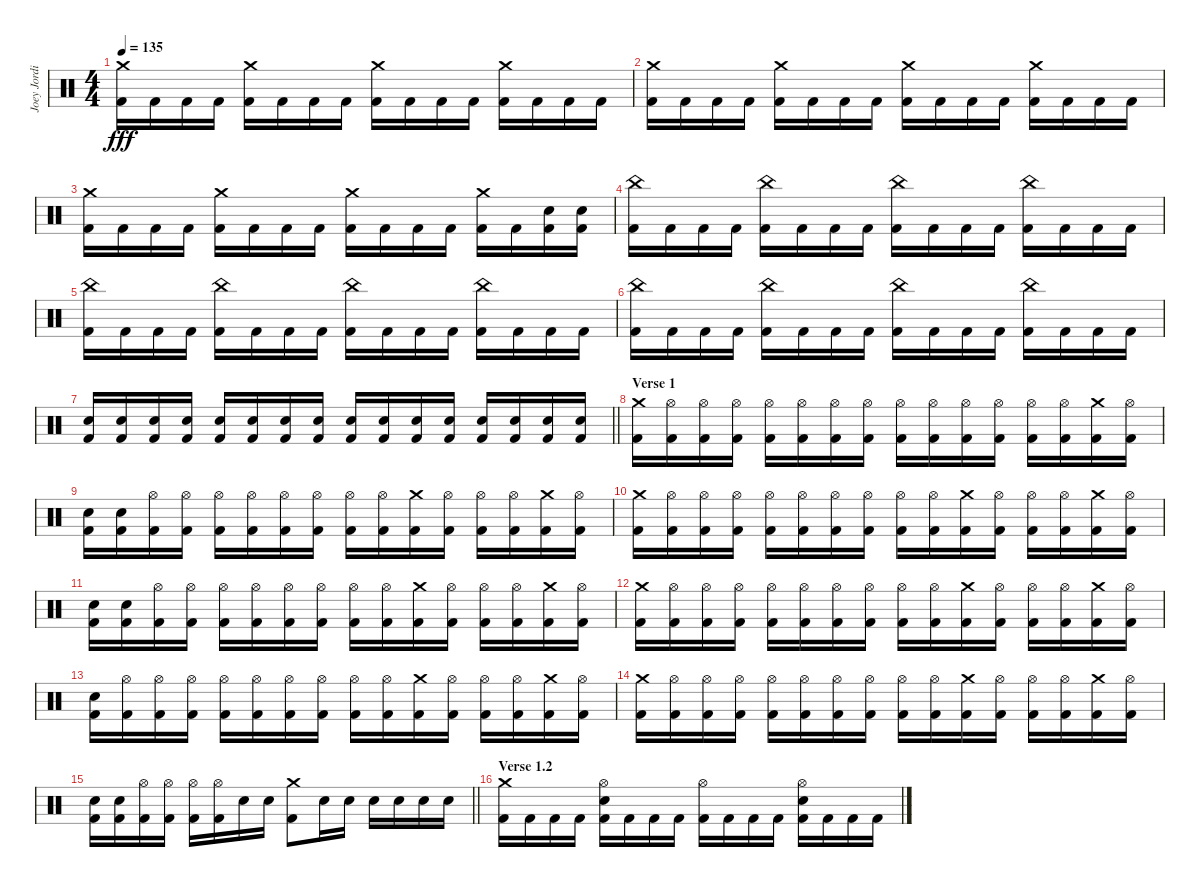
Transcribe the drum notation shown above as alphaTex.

\track ("Joey Jordison" "Joey Jordi") {instrument percussion}
\staff {score}
\articulation defaults
\ts (4 4)
\tempo 135
\clef neutral
\ks c
("Crash medium (hit)" "Kick (hit) 2").16{dy fff} "Kick (hit) 2".16 "Kick (hit) 2".16 "Kick (hit) 2".16 ("Crash medium (hit)" "Kick (hit) 2").16 "Kick (hit) 2".16 "Kick (hit) 2".16 "Kick (hit) 2".16 ("Crash medium (hit)" "Kick (hit) 2").16 "Kick (hit) 2".16 "Kick (hit) 2".16 "Kick (hit) 2".16 ("Crash medium (hit)" "Kick (hit) 2").16 "Kick (hit) 2".16 "Kick (hit) 2".16 "Kick (hit) 2".16 |
("Crash medium (hit)" "Kick (hit) 2").16 "Kick (hit) 2".16 "Kick (hit) 2".16 "Kick (hit) 2".16 ("Crash medium (hit)" "Kick (hit) 2").16 "Kick (hit) 2".16 "Kick (hit) 2".16 "Kick (hit) 2".16 ("Crash medium (hit)" "Kick (hit) 2").16 "Kick (hit) 2".16 "Kick (hit) 2".16 "Kick (hit) 2".16 ("Crash medium (hit)" "Kick (hit) 2").16 "Kick (hit) 2".16 "Kick (hit) 2".16 "Kick (hit) 2".16 |
("Crash medium (hit)" "Kick (hit) 2").16 "Kick (hit) 2".16 "Kick (hit) 2".16 "Kick (hit) 2".16 ("Crash medium (hit)" "Kick (hit) 2").16 "Kick (hit) 2".16 "Kick (hit) 2".16 "Kick (hit) 2".16 ("Crash medium (hit)" "Kick (hit) 2").16 "Kick (hit) 2".16 "Kick (hit) 2".16 "Kick (hit) 2".16 ("Crash medium (hit)" "Kick (hit) 2").16 "Kick (hit) 2".16 ("Electric Snare (hit)" "Kick (hit) 2").16 ("Electric Snare (hit)" "Kick (hit) 2").16 |
("China (hit)" "Kick (hit) 2").16 "Kick (hit) 2".16 "Kick (hit) 2".16 "Kick (hit) 2".16 ("China (hit)" "Kick (hit) 2").16 "Kick (hit) 2".16 "Kick (hit) 2".16 "Kick (hit) 2".16 ("China (hit)" "Kick (hit) 2").16 "Kick (hit) 2".16 "Kick (hit) 2".16 "Kick (hit) 2".16 ("China (hit)" "Kick (hit) 2").16 "Kick (hit) 2".16 "Kick (hit) 2".16 "Kick (hit) 2".16 |
("China (hit)" "Kick (hit) 2").16 "Kick (hit) 2".16 "Kick (hit) 2".16 "Kick (hit) 2".16 ("China (hit)" "Kick (hit) 2").16 "Kick (hit) 2".16 "Kick (hit) 2".16 "Kick (hit) 2".16 ("China (hit)" "Kick (hit) 2").16 "Kick (hit) 2".16 "Kick (hit) 2".16 "Kick (hit) 2".16 ("China (hit)" "Kick (hit) 2").16 "Kick (hit) 2".16 "Kick (hit) 2".16 "Kick (hit) 2".16 |
("China (hit)" "Kick (hit) 2").16 "Kick (hit) 2".16 "Kick (hit) 2".16 "Kick (hit) 2".16 ("China (hit)" "Kick (hit) 2").16 "Kick (hit) 2".16 "Kick (hit) 2".16 "Kick (hit) 2".16 ("China (hit)" "Kick (hit) 2").16 "Kick (hit) 2".16 "Kick (hit) 2".16 "Kick (hit) 2".16 ("China (hit)" "Kick (hit) 2").16 "Kick (hit) 2".16 "Kick (hit) 2".16 "Kick (hit) 2".16 |
\barLineRight lightlight
("Electric Snare (hit)" "Kick (hit) 2").16 ("Electric Snare (hit)" "Kick (hit) 2").16 ("Electric Snare (hit)" "Kick (hit) 2").16 ("Electric Snare (hit)" "Kick (hit) 2").16 ("Electric Snare (hit)" "Kick (hit) 2").16 ("Electric Snare (hit)" "Kick (hit) 2").16 ("Electric Snare (hit)" "Kick (hit) 2").16 ("Electric Snare (hit)" "Kick (hit) 2").16 ("Electric Snare (hit)" "Kick (hit) 2").16 ("Electric Snare (hit)" "Kick (hit) 2").16 ("Electric Snare (hit)" "Kick (hit) 2").16 ("Electric Snare (hit)" "Kick (hit) 2").16 ("Electric Snare (hit)" "Kick (hit) 2").16 ("Electric Snare (hit)" "Kick (hit) 2").16 ("Electric Snare (hit)" "Kick (hit) 2").16 ("Electric Snare (hit)" "Kick (hit) 2").16 |
\section ("" "Verse 1")
("Crash medium (hit)" "Kick (hit) 2").16 ("Hi-Hat (open)" "Kick (hit) 2").16 ("Hi-Hat (open)" "Kick (hit) 2").16 ("Hi-Hat (open)" "Kick (hit) 2").16 ("Hi-Hat (open)" "Kick (hit) 2").16 ("Hi-Hat (open)" "Kick (hit) 2").16 ("Hi-Hat (open)" "Kick (hit) 2").16 ("Hi-Hat (open)" "Kick (hit) 2").16 ("Hi-Hat (open)" "Kick (hit) 2").16 ("Hi-Hat (open)" "Kick (hit) 2").16 ("Hi-Hat (open)" "Kick (hit) 2").16 ("Hi-Hat (open)" "Kick (hit) 2").16 ("Hi-Hat (open)" "Kick (hit) 2").16 ("Hi-Hat (open)" "Kick (hit) 2").16 ("Crash medium (hit)" "Kick (hit) 2").16 ("Hi-Hat (open)" "Kick (hit) 2").16 |
("Electric Snare (hit)" "Kick (hit) 2").16 ("Electric Snare (hit)" "Kick (hit) 2").16 ("Hi-Hat (open)" "Kick (hit) 2").16 ("Hi-Hat (open)" "Kick (hit) 2").16 ("Hi-Hat (open)" "Kick (hit) 2").16 ("Hi-Hat (open)" "Kick (hit) 2").16 ("Hi-Hat (open)" "Kick (hit) 2").16 ("Hi-Hat (open)" "Kick (hit) 2").16 ("Hi-Hat (open)" "Kick (hit) 2").16 ("Hi-Hat (open)" "Kick (hit) 2").16 ("Crash medium (hit)" "Kick (hit) 2").16 ("Hi-Hat (open)" "Kick (hit) 2").16 ("Hi-Hat (open)" "Kick (hit) 2").16 ("Hi-Hat (open)" "Kick (hit) 2").16 ("Crash medium (hit)" "Kick (hit) 2").16 ("Hi-Hat (open)" "Kick (hit) 2").16 |
("Crash medium (hit)" "Kick (hit) 2").16 ("Hi-Hat (open)" "Kick (hit) 2").16 ("Hi-Hat (open)" "Kick (hit) 2").16 ("Hi-Hat (open)" "Kick (hit) 2").16 ("Hi-Hat (open)" "Kick (hit) 2").16 ("Hi-Hat (open)" "Kick (hit) 2").16 ("Hi-Hat (open)" "Kick (hit) 2").16 ("Hi-Hat (open)" "Kick (hit) 2").16 ("Hi-Hat (open)" "Kick (hit) 2").16 ("Hi-Hat (open)" "Kick (hit) 2").16 ("Crash medium (hit)" "Kick (hit) 2").16 ("Hi-Hat (open)" "Kick (hit) 2").16 ("Hi-Hat (open)" "Kick (hit) 2").16 ("Hi-Hat (open)" "Kick (hit) 2").16 ("Crash medium (hit)" "Kick (hit) 2").16 ("Hi-Hat (open)" "Kick (hit) 2").16 |
("Electric Snare (hit)" "Kick (hit) 2").16 ("Electric Snare (hit)" "Kick (hit) 2").16 ("Hi-Hat (open)" "Kick (hit) 2").16 ("Hi-Hat (open)" "Kick (hit) 2").16 ("Hi-Hat (open)" "Kick (hit) 2").16 ("Hi-Hat (open)" "Kick (hit) 2").16 ("Hi-Hat (open)" "Kick (hit) 2").16 ("Hi-Hat (open)" "Kick (hit) 2").16 ("Hi-Hat (open)" "Kick (hit) 2").16 ("Hi-Hat (open)" "Kick (hit) 2").16 ("Crash medium (hit)" "Kick (hit) 2").16 ("Hi-Hat (open)" "Kick (hit) 2").16 ("Hi-Hat (open)" "Kick (hit) 2").16 ("Hi-Hat (open)" "Kick (hit) 2").16 ("Crash medium (hit)" "Kick (hit) 2").16 ("Hi-Hat (open)" "Kick (hit) 2").16 |
("Crash medium (hit)" "Kick (hit) 2").16 ("Hi-Hat (open)" "Kick (hit) 2").16 ("Hi-Hat (open)" "Kick (hit) 2").16 ("Hi-Hat (open)" "Kick (hit) 2").16 ("Hi-Hat (open)" "Kick (hit) 2").16 ("Hi-Hat (open)" "Kick (hit) 2").16 ("Hi-Hat (open)" "Kick (hit) 2").16 ("Hi-Hat (open)" "Kick (hit) 2").16 ("Hi-Hat (open)" "Kick (hit) 2").16 ("Hi-Hat (open)" "Kick (hit) 2").16 ("Crash medium (hit)" "Kick (hit) 2").16 ("Hi-Hat (open)" "Kick (hit) 2").16 ("Hi-Hat (open)" "Kick (hit) 2").16 ("Hi-Hat (open)" "Kick (hit) 2").16 ("Crash medium (hit)" "Kick (hit) 2").16 ("Hi-Hat (open)" "Kick (hit) 2").16 |
("Electric Snare (hit)" "Kick (hit) 2").16 ("Hi-Hat (open)" "Kick (hit) 2").16 ("Hi-Hat (open)" "Kick (hit) 2").16 ("Hi-Hat (open)" "Kick (hit) 2").16 ("Hi-Hat (open)" "Kick (hit) 2").16 ("Hi-Hat (open)" "Kick (hit) 2").16 ("Hi-Hat (open)" "Kick (hit) 2").16 ("Hi-Hat (open)" "Kick (hit) 2").16 ("Hi-Hat (open)" "Kick (hit) 2").16 ("Hi-Hat (open)" "Kick (hit) 2").16 ("Crash medium (hit)" "Kick (hit) 2").16 ("Hi-Hat (open)" "Kick (hit) 2").16 ("Hi-Hat (open)" "Kick (hit) 2").16 ("Hi-Hat (open)" "Kick (hit) 2").16 ("Crash medium (hit)" "Kick (hit) 2").16 ("Hi-Hat (open)" "Kick (hit) 2").16 |
("Crash medium (hit)" "Kick (hit) 2").16 ("Hi-Hat (open)" "Kick (hit) 2").16 ("Hi-Hat (open)" "Kick (hit) 2").16 ("Hi-Hat (open)" "Kick (hit) 2").16 ("Hi-Hat (open)" "Kick (hit) 2").16 ("Hi-Hat (open)" "Kick (hit) 2").16 ("Hi-Hat (open)" "Kick (hit) 2").16 ("Hi-Hat (open)" "Kick (hit) 2").16 ("Hi-Hat (open)" "Kick (hit) 2").16 ("Hi-Hat (open)" "Kick (hit) 2").16 ("Crash medium (hit)" "Kick (hit) 2").16 ("Hi-Hat (open)" "Kick (hit) 2").16 ("Hi-Hat (open)" "Kick (hit) 2").16 ("Hi-Hat (open)" "Kick (hit) 2").16 ("Crash medium (hit)" "Kick (hit) 2").16 ("Hi-Hat (open)" "Kick (hit) 2").16 |
\barLineRight lightlight
("Electric Snare (hit)" "Kick (hit) 2").16 ("Electric Snare (hit)" "Kick (hit) 2").16 ("Hi-Hat (open)" "Kick (hit) 2").16 ("Hi-Hat (open)" "Kick (hit) 2").16 ("Hi-Hat (open)" "Kick (hit) 2").16 ("Hi-Hat (open)" "Kick (hit) 2").16 "Electric Snare (hit)".16 "Electric Snare (hit)".16 ("Crash medium (hit)" "Kick (hit) 2").8 "Electric Snare (hit)".16 "Electric Snare (hit)".16 "Electric Snare (hit)".16 "Electric Snare (hit)".16 "Electric Snare (hit)".16 "Electric Snare (hit)".16 |
\section ("" "Verse 1.2")
("Crash medium (hit)" "Kick (hit) 2").16 "Kick (hit) 2".16 "Kick (hit) 2".16 "Kick (hit) 2".16 ("Hi-Hat (open)" "Electric Snare (hit)" "Kick (hit) 2").16 "Kick (hit) 2".16 "Kick (hit) 2".16 "Kick (hit) 2".16 ("Hi-Hat (open)" "Kick (hit) 2").16 "Kick (hit) 2".16 "Kick (hit) 2".16 "Kick (hit) 2".16 ("Hi-Hat (open)" "Electric Snare (hit)" "Kick (hit) 2").16 "Kick (hit) 2".16 "Kick (hit) 2".16 "Kick (hit) 2".16
